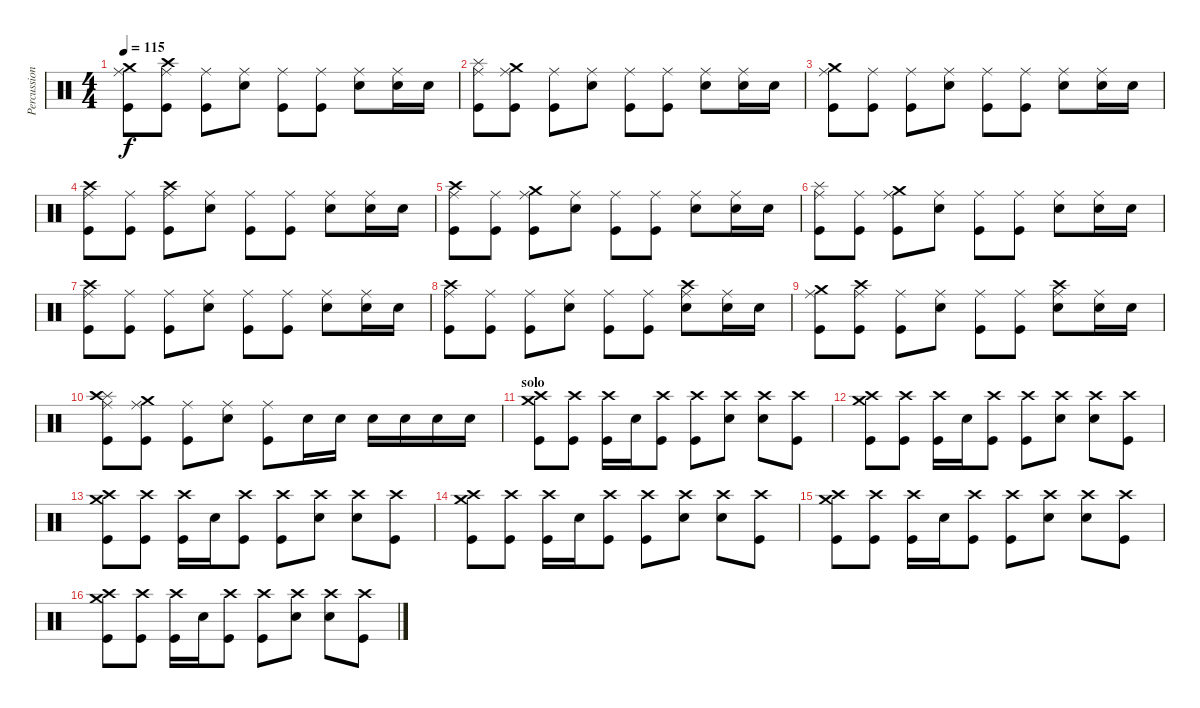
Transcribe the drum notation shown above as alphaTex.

\track ("Percussions" "Percussion") {instrument percussion}
\staff {score}
\articulation defaults
\ts (4 4)
\tempo 115
\clef neutral
\ks c
("Ride (middle)" "Crash medium (hit)" "Kick (hit)").8{dy f} ("Ride (middle)" "Crash high (hit)" "Kick (hit)").8 ("Ride (middle)" "Kick (hit)").8 ("Ride (middle)" "Electric Snare (hit)").8 ("Ride (middle)" "Kick (hit)").8 ("Ride (middle)" "Kick (hit)").8 ("Ride (middle)" "Electric Snare (hit)").8 ("Ride (middle)" "Electric Snare (hit)").16 "Electric Snare (hit)".16 |
("Ride (middle)" "Splash (hit)" "Kick (hit)").8 ("Ride (middle)" "Crash medium (hit)" "Kick (hit)").8 ("Ride (middle)" "Kick (hit)").8 ("Ride (middle)" "Electric Snare (hit)").8 ("Ride (middle)" "Kick (hit)").8 ("Ride (middle)" "Kick (hit)").8 ("Ride (middle)" "Electric Snare (hit)").8 ("Ride (middle)" "Electric Snare (hit)").16 "Electric Snare (hit)".16 |
("Ride (middle)" "Crash medium (hit)" "Kick (hit)").8 ("Ride (middle)" "Kick (hit)").8 ("Ride (middle)" "Kick (hit)").8 ("Ride (middle)" "Electric Snare (hit)").8 ("Ride (middle)" "Kick (hit)").8 ("Ride (middle)" "Kick (hit)").8 ("Ride (middle)" "Electric Snare (hit)").8 ("Ride (middle)" "Electric Snare (hit)").16 "Electric Snare (hit)".16 |
("Ride (middle)" "Crash high (hit)" "Kick (hit)").8 ("Ride (middle)" "Kick (hit)").8 ("Ride (middle)" "Crash high (hit)" "Kick (hit)").8 ("Ride (middle)" "Electric Snare (hit)").8 ("Ride (middle)" "Kick (hit)").8 ("Ride (middle)" "Kick (hit)").8 ("Ride (middle)" "Electric Snare (hit)").8 ("Ride (middle)" "Electric Snare (hit)").16 "Electric Snare (hit)".16 |
("Ride (middle)" "Crash high (hit)" "Kick (hit)").8 ("Ride (middle)" "Kick (hit)").8 ("Ride (middle)" "Crash medium (hit)" "Kick (hit)").8 ("Ride (middle)" "Electric Snare (hit)").8 ("Ride (middle)" "Kick (hit)").8 ("Ride (middle)" "Kick (hit)").8 ("Ride (middle)" "Electric Snare (hit)").8 ("Ride (middle)" "Electric Snare (hit)").16 "Electric Snare (hit)".16 |
("Ride (middle)" "Splash (hit)" "Kick (hit)").8 ("Ride (middle)" "Kick (hit)").8 ("Ride (middle)" "Crash medium (hit)" "Kick (hit)").8 ("Ride (middle)" "Electric Snare (hit)").8 ("Ride (middle)" "Kick (hit)").8 ("Ride (middle)" "Kick (hit)").8 ("Ride (middle)" "Electric Snare (hit)").8 ("Ride (middle)" "Electric Snare (hit)").16 "Electric Snare (hit)".16 |
("Ride (middle)" "Crash high (hit)" "Kick (hit)").8 ("Ride (middle)" "Kick (hit)").8 ("Ride (middle)" "Kick (hit)").8 ("Ride (middle)" "Electric Snare (hit)").8 ("Ride (middle)" "Kick (hit)").8 ("Ride (middle)" "Kick (hit)").8 ("Ride (middle)" "Electric Snare (hit)").8 ("Ride (middle)" "Electric Snare (hit)").16 "Electric Snare (hit)".16 |
("Ride (middle)" "Crash high (hit)" "Kick (hit)").8 ("Ride (middle)" "Kick (hit)").8 ("Ride (middle)" "Kick (hit)").8 ("Ride (middle)" "Electric Snare (hit)").8 ("Ride (middle)" "Kick (hit)").8 ("Ride (middle)" "Kick (hit)").8 ("Ride (middle)" "Crash high (hit)" "Electric Snare (hit)").8 ("Ride (middle)" "Electric Snare (hit)").16 "Electric Snare (hit)".16 |
("Ride (middle)" "Crash medium (hit)" "Kick (hit)").8 ("Ride (middle)" "Crash high (hit)" "Kick (hit)").8 ("Ride (middle)" "Kick (hit)").8 ("Ride (middle)" "Electric Snare (hit)").8 ("Ride (middle)" "Kick (hit)").8 ("Ride (middle)" "Kick (hit)").8 ("Ride (middle)" "Crash high (hit)" "Electric Snare (hit)").8 ("Ride (middle)" "Electric Snare (hit)").16 "Electric Snare (hit)".16 |
("Ride (middle)" "Splash (hit)" "Crash high (hit)" "Kick (hit)").8 ("Ride (middle)" "Crash medium (hit)" "Kick (hit)").8 ("Ride (middle)" "Kick (hit)").8 ("Ride (middle)" "Electric Snare (hit)").8 ("Ride (middle)" "Kick (hit)").8 "Electric Snare (hit)".16 "Electric Snare (hit)".16 "Electric Snare (hit)".16 "Electric Snare (hit)".16 "Electric Snare (hit)".16 "Electric Snare (hit)".16 |
\section ("" "solo")
("Crash high (hit)" "Crash medium (hit)" "Kick (hit)").8 ("Crash high (hit)" "Kick (hit)").8 ("Crash high (hit)" "Kick (hit)").16 "Electric Snare (hit)".16 ("Crash high (hit)" "Kick (hit)").8 ("Crash high (hit)" "Kick (hit)").8 ("Crash high (hit)" "Electric Snare (hit)").8 ("Crash high (hit)" "Electric Snare (hit)").8 ("Crash high (hit)" "Kick (hit)").8 |
("Crash high (hit)" "Crash medium (hit)" "Kick (hit)").8 ("Crash high (hit)" "Kick (hit)").8 ("Crash high (hit)" "Kick (hit)").16 "Electric Snare (hit)".16 ("Crash high (hit)" "Kick (hit)").8 ("Crash high (hit)" "Kick (hit)").8 ("Crash high (hit)" "Electric Snare (hit)").8 ("Crash high (hit)" "Electric Snare (hit)").8 ("Crash high (hit)" "Kick (hit)").8 |
("Crash high (hit)" "Crash medium (hit)" "Kick (hit)").8 ("Crash high (hit)" "Kick (hit)").8 ("Crash high (hit)" "Kick (hit)").16 "Electric Snare (hit)".16 ("Crash high (hit)" "Kick (hit)").8 ("Crash high (hit)" "Kick (hit)").8 ("Crash high (hit)" "Electric Snare (hit)").8 ("Crash high (hit)" "Electric Snare (hit)").8 ("Crash high (hit)" "Kick (hit)").8 |
("Crash high (hit)" "Crash medium (hit)" "Kick (hit)").8 ("Crash high (hit)" "Kick (hit)").8 ("Crash high (hit)" "Kick (hit)").16 "Electric Snare (hit)".16 ("Crash high (hit)" "Kick (hit)").8 ("Crash high (hit)" "Kick (hit)").8 ("Crash high (hit)" "Electric Snare (hit)").8 ("Crash high (hit)" "Electric Snare (hit)").8 ("Crash high (hit)" "Kick (hit)").8 |
("Crash high (hit)" "Crash medium (hit)" "Kick (hit)").8 ("Crash high (hit)" "Kick (hit)").8 ("Crash high (hit)" "Kick (hit)").16 "Electric Snare (hit)".16 ("Crash high (hit)" "Kick (hit)").8 ("Crash high (hit)" "Kick (hit)").8 ("Crash high (hit)" "Electric Snare (hit)").8 ("Crash high (hit)" "Electric Snare (hit)").8 ("Crash high (hit)" "Kick (hit)").8 |
("Crash high (hit)" "Crash medium (hit)" "Kick (hit)").8 ("Crash high (hit)" "Kick (hit)").8 ("Crash high (hit)" "Kick (hit)").16 "Electric Snare (hit)".16 ("Crash high (hit)" "Kick (hit)").8 ("Crash high (hit)" "Kick (hit)").8 ("Crash high (hit)" "Electric Snare (hit)").8 ("Crash high (hit)" "Electric Snare (hit)").8 ("Crash high (hit)" "Kick (hit)").8
